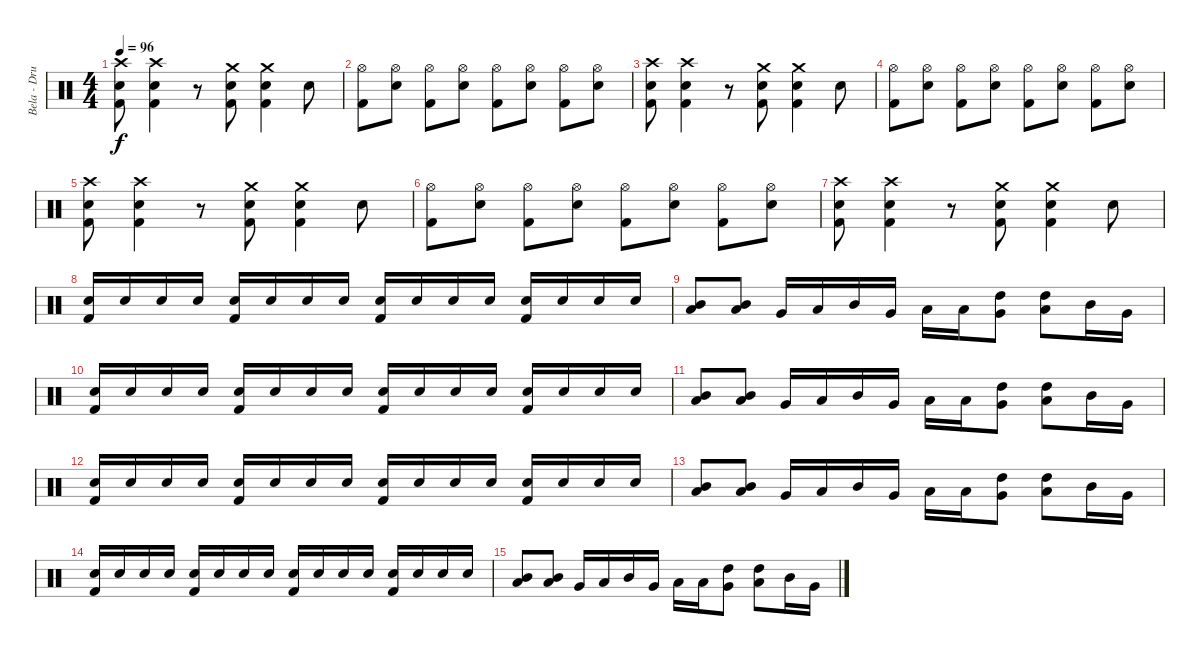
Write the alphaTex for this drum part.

\track ("Bela - Drums" "Bela - Dru") {instrument percussion}
\staff {score}
\articulation defaults
\ts (4 4)
\tempo 96
\clef neutral
\ks c
("Crash high (hit)" "Snare (hit) 2" "Kick (hit) 2").8{dy f} ("Crash high (hit)" "Snare (hit) 2" "Kick (hit) 2").4 r.8 ("Crash medium (hit)" "Snare (hit) 2" "Kick (hit) 2").8 ("Crash medium (hit)" "Snare (hit) 2" "Kick (hit) 2").4 "Snare (hit) 2".8 |
("Hi-Hat (open)" "Kick (hit) 2").8 ("Hi-Hat (open)" "Snare (hit) 2").8 ("Hi-Hat (open)" "Kick (hit) 2").8 ("Hi-Hat (open)" "Snare (hit) 2").8 ("Hi-Hat (open)" "Kick (hit) 2").8 ("Hi-Hat (open)" "Snare (hit) 2").8 ("Hi-Hat (open)" "Kick (hit) 2").8 ("Hi-Hat (open)" "Snare (hit) 2").8 |
("Crash high (hit)" "Snare (hit) 2" "Kick (hit) 2").8 ("Crash high (hit)" "Snare (hit) 2" "Kick (hit) 2").4 r.8 ("Crash medium (hit)" "Snare (hit) 2" "Kick (hit) 2").8 ("Crash medium (hit)" "Snare (hit) 2" "Kick (hit) 2").4 "Snare (hit) 2".8 |
("Hi-Hat (open)" "Kick (hit) 2").8 ("Hi-Hat (open)" "Snare (hit) 2").8 ("Hi-Hat (open)" "Kick (hit) 2").8 ("Hi-Hat (open)" "Snare (hit) 2").8 ("Hi-Hat (open)" "Kick (hit) 2").8 ("Hi-Hat (open)" "Snare (hit) 2").8 ("Hi-Hat (open)" "Kick (hit) 2").8 ("Hi-Hat (open)" "Snare (hit) 2").8 |
("Crash high (hit)" "Snare (hit) 2" "Kick (hit) 2").8 ("Crash high (hit)" "Snare (hit) 2" "Kick (hit) 2").4 r.8 ("Crash medium (hit)" "Snare (hit) 2" "Kick (hit) 2").8 ("Crash medium (hit)" "Snare (hit) 2" "Kick (hit) 2").4 "Snare (hit) 2".8 |
("Hi-Hat (open)" "Kick (hit) 2").8 ("Hi-Hat (open)" "Snare (hit) 2").8 ("Hi-Hat (open)" "Kick (hit) 2").8 ("Hi-Hat (open)" "Snare (hit) 2").8 ("Hi-Hat (open)" "Kick (hit) 2").8 ("Hi-Hat (open)" "Snare (hit) 2").8 ("Hi-Hat (open)" "Kick (hit) 2").8 ("Hi-Hat (open)" "Snare (hit) 2").8 |
("Crash high (hit)" "Snare (hit) 2" "Kick (hit) 2").8 ("Crash high (hit)" "Snare (hit) 2" "Kick (hit) 2").4 r.8 ("Crash medium (hit)" "Snare (hit) 2" "Kick (hit) 2").8 ("Crash medium (hit)" "Snare (hit) 2" "Kick (hit) 2").4 "Snare (hit) 2".8 |
("Snare (hit) 2" "Kick (hit) 2").16 "Snare (hit) 2".16 "Snare (hit) 2".16 "Snare (hit) 2".16 ("Snare (hit) 2" "Kick (hit) 2").16 "Snare (hit) 2".16 "Snare (hit) 2".16 "Snare (hit) 2".16 ("Snare (hit) 2" "Kick (hit) 2").16 "Snare (hit) 2".16 "Snare (hit) 2".16 "Snare (hit) 2".16 ("Snare (hit) 2" "Kick (hit) 2").16 "Snare (hit) 2".16 "Snare (hit) 2".16 "Snare (hit) 2".16 |
("Low Floor Tom (hit)" "Mid Tom (hit)").8 ("Low Floor Tom (hit)" "Mid Tom (hit)").8 "Very Low Tom (hit)".16 "Low Tom (hit)".16 "Mid Tom (hit)".16 "Very Low Tom (hit)".16 "Low Floor Tom (hit)".16 "Low Floor Tom (hit)".16 ("Very Low Tom (hit)" "High Tom (hit)").8 ("Low Tom (hit)" "High Tom (hit)").8 "Mid Tom (hit)".16 "Very Low Tom (hit)".16 |
("Snare (hit) 2" "Kick (hit) 2").16 "Snare (hit) 2".16 "Snare (hit) 2".16 "Snare (hit) 2".16 ("Snare (hit) 2" "Kick (hit) 2").16 "Snare (hit) 2".16 "Snare (hit) 2".16 "Snare (hit) 2".16 ("Snare (hit) 2" "Kick (hit) 2").16 "Snare (hit) 2".16 "Snare (hit) 2".16 "Snare (hit) 2".16 ("Snare (hit) 2" "Kick (hit) 2").16 "Snare (hit) 2".16 "Snare (hit) 2".16 "Snare (hit) 2".16 |
("Low Floor Tom (hit)" "Mid Tom (hit)").8 ("Low Floor Tom (hit)" "Mid Tom (hit)").8 "Very Low Tom (hit)".16 "Low Tom (hit)".16 "Mid Tom (hit)".16 "Very Low Tom (hit)".16 "Low Floor Tom (hit)".16 "Low Floor Tom (hit)".16 ("Very Low Tom (hit)" "High Tom (hit)").8 ("Low Tom (hit)" "High Tom (hit)").8 "Mid Tom (hit)".16 "Very Low Tom (hit)".16 |
("Snare (hit) 2" "Kick (hit) 2").16 "Snare (hit) 2".16 "Snare (hit) 2".16 "Snare (hit) 2".16 ("Snare (hit) 2" "Kick (hit) 2").16 "Snare (hit) 2".16 "Snare (hit) 2".16 "Snare (hit) 2".16 ("Snare (hit) 2" "Kick (hit) 2").16 "Snare (hit) 2".16 "Snare (hit) 2".16 "Snare (hit) 2".16 ("Snare (hit) 2" "Kick (hit) 2").16 "Snare (hit) 2".16 "Snare (hit) 2".16 "Snare (hit) 2".16 |
("Low Floor Tom (hit)" "Mid Tom (hit)").8 ("Low Floor Tom (hit)" "Mid Tom (hit)").8 "Very Low Tom (hit)".16 "Low Tom (hit)".16 "Mid Tom (hit)".16 "Very Low Tom (hit)".16 "Low Floor Tom (hit)".16 "Low Floor Tom (hit)".16 ("Very Low Tom (hit)" "High Tom (hit)").8 ("Low Tom (hit)" "High Tom (hit)").8 "Mid Tom (hit)".16 "Very Low Tom (hit)".16 |
("Snare (hit) 2" "Kick (hit) 2").16 "Snare (hit) 2".16 "Snare (hit) 2".16 "Snare (hit) 2".16 ("Snare (hit) 2" "Kick (hit) 2").16 "Snare (hit) 2".16 "Snare (hit) 2".16 "Snare (hit) 2".16 ("Snare (hit) 2" "Kick (hit) 2").16 "Snare (hit) 2".16 "Snare (hit) 2".16 "Snare (hit) 2".16 ("Snare (hit) 2" "Kick (hit) 2").16 "Snare (hit) 2".16 "Snare (hit) 2".16 "Snare (hit) 2".16 |
("Low Floor Tom (hit)" "Mid Tom (hit)").8 ("Low Floor Tom (hit)" "Mid Tom (hit)").8 "Very Low Tom (hit)".16 "Low Tom (hit)".16 "Mid Tom (hit)".16 "Very Low Tom (hit)".16 "Low Floor Tom (hit)".16 "Low Floor Tom (hit)".16 ("Very Low Tom (hit)" "High Tom (hit)").8 ("Low Tom (hit)" "High Tom (hit)").8 "Mid Tom (hit)".16 "Very Low Tom (hit)".16
